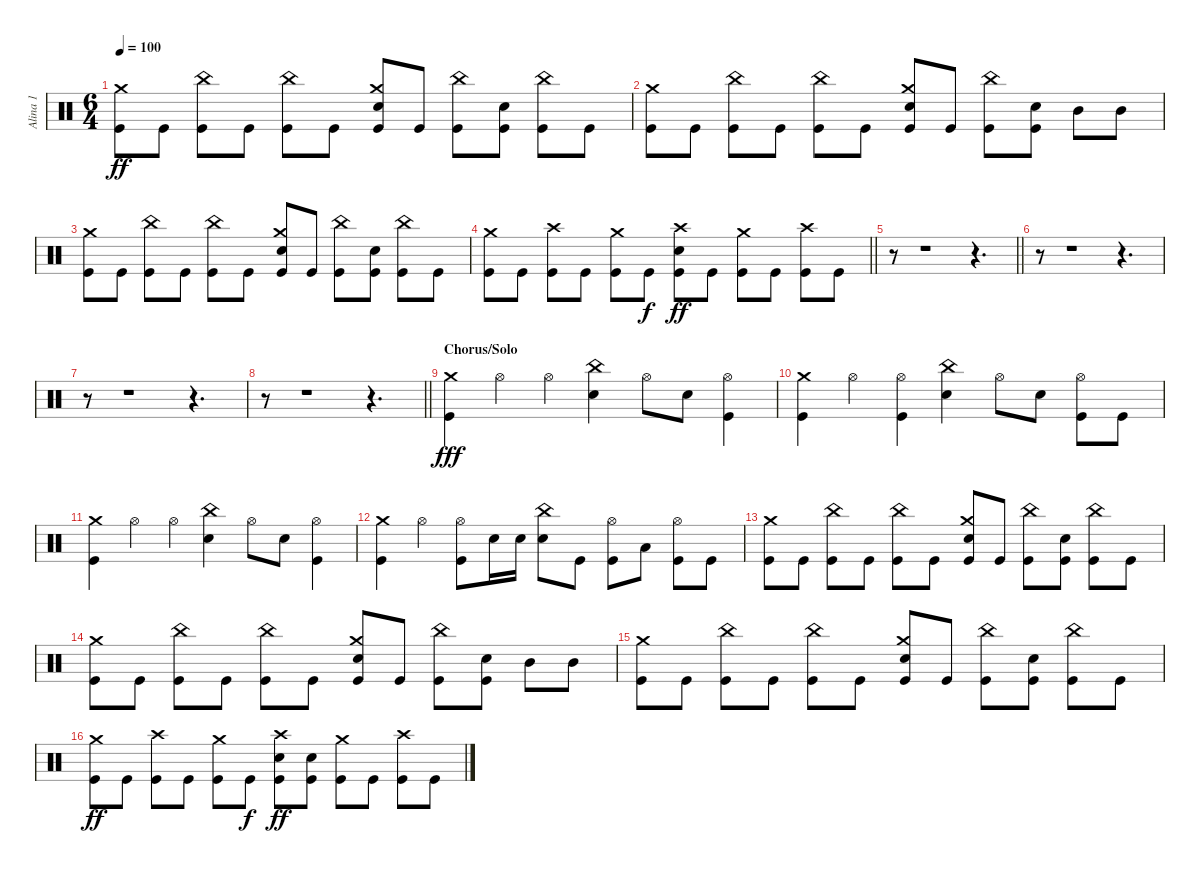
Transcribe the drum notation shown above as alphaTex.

\track ("Alina 1" "Alina 1") {mute instrument percussion}
\staff {score}
\articulation defaults
\ts (6 4)
\tempo 100
\clef neutral
\ks c
("Kick (hit)" "Crash medium (hit)").8{dy ff} "Kick (hit)".8 ("Kick (hit)" "China (hit)").8 "Kick (hit)".8 ("Kick (hit)" "China (hit)").8 "Kick (hit)".8 ("Kick (hit)" "Snare (hit) 2" "Crash medium (hit)").8 "Kick (hit)".8 ("Kick (hit)" "China (hit)").8 ("Kick (hit)" "Snare (hit) 2").8 ("Kick (hit)" "China (hit)").8 "Kick (hit)".8 |
("Kick (hit)" "Crash medium (hit)").8 "Kick (hit)".8 ("Kick (hit)" "China (hit)").8 "Kick (hit)".8 ("Kick (hit)" "China (hit)").8 "Kick (hit)".8 ("Kick (hit)" "Snare (hit) 2" "Crash medium (hit)").8 "Kick (hit)".8 ("Kick (hit)" "China (hit)").8 ("Kick (hit)" "Snare (hit) 2").8 "Mid Tom (hit)".8 "Mid Tom (hit)".8 |
("Kick (hit)" "Crash medium (hit)").8 "Kick (hit)".8 ("Kick (hit)" "China (hit)").8 "Kick (hit)".8 ("Kick (hit)" "China (hit)").8 "Kick (hit)".8 ("Kick (hit)" "Snare (hit) 2" "Crash medium (hit)").8 "Kick (hit)".8 ("Kick (hit)" "China (hit)").8 ("Kick (hit)" "Snare (hit) 2").8 ("Kick (hit)" "China (hit)").8 "Kick (hit)".8 |
\barLineRight lightlight
("Kick (hit)" "Crash medium (hit)").8 "Kick (hit)".8 ("Kick (hit)" "Crash high (hit)").8 "Kick (hit)".8 ("Kick (hit)" "Crash medium (hit)").8 "Kick (hit)".8{dy f} ("Kick (hit)" "Snare (hit) 2" "Crash high (hit)").8{dy ff} "Kick (hit)".8 ("Kick (hit)" "Crash medium (hit)").8 "Kick (hit)".8 ("Kick (hit)" "Crash high (hit)").8 "Kick (hit)".8 |
\barLineRight lightlight
r.8 r.1 r.4{d} |
r.8 r.1 r.4{d} |
r.8 r.1 r.4{d} |
\barLineRight lightlight
r.8 r.1 r.4{d} |
\section ("" "Chorus/Solo")
("Kick (hit)" "Crash medium (hit)").4{dy fff} "Hi-Hat (open)".4 "Hi-Hat (open)".4 ("Snare (hit) 2" "China (hit)").4 "Hi-Hat (open)".8 "Snare (hit) 2".8 ("Hi-Hat (open)" "Kick (hit)").4 |
("Kick (hit)" "Crash medium (hit)").4 "Hi-Hat (open)".4 ("Hi-Hat (open)" "Kick (hit)").4 ("Snare (hit) 2" "China (hit)").4 "Hi-Hat (open)".8 "Snare (hit) 2".8 ("Hi-Hat (open)" "Kick (hit)").8 "Kick (hit)".8 |
("Kick (hit)" "Crash medium (hit)").4 "Hi-Hat (open)".4 "Hi-Hat (open)".4 ("Snare (hit) 2" "China (hit)").4 "Hi-Hat (open)".8 "Snare (hit) 2".8 ("Hi-Hat (open)" "Kick (hit)").4 |
("Kick (hit)" "Crash medium (hit)").4 "Hi-Hat (open)".4 ("Hi-Hat (open)" "Kick (hit)").8 "Snare (hit) 2".16 "Snare (hit) 2".16 ("Snare (hit) 2" "China (hit)").8 "Kick (hit)".8 ("Hi-Hat (open)" "Kick (hit)").8 "Low Floor Tom (hit)".8 ("Kick (hit)" "Hi-Hat (open)").8 "Kick (hit)".8 |
("Kick (hit)" "Crash medium (hit)").8 "Kick (hit)".8 ("Kick (hit)" "China (hit)").8 "Kick (hit)".8 ("Kick (hit)" "China (hit)").8 "Kick (hit)".8 ("Kick (hit)" "Snare (hit) 2" "Crash medium (hit)").8 "Kick (hit)".8 ("Kick (hit)" "China (hit)").8 ("Kick (hit)" "Snare (hit) 2").8 ("Kick (hit)" "China (hit)").8 "Kick (hit)".8 |
("Kick (hit)" "Crash medium (hit)").8 "Kick (hit)".8 ("Kick (hit)" "China (hit)").8 "Kick (hit)".8 ("Kick (hit)" "China (hit)").8 "Kick (hit)".8 ("Kick (hit)" "Snare (hit) 2" "Crash medium (hit)").8 "Kick (hit)".8 ("Kick (hit)" "China (hit)").8 ("Kick (hit)" "Snare (hit) 2").8 "Mid Tom (hit)".8 "Mid Tom (hit)".8 |
("Kick (hit)" "Crash medium (hit)").8 "Kick (hit)".8 ("Kick (hit)" "China (hit)").8 "Kick (hit)".8 ("Kick (hit)" "China (hit)").8 "Kick (hit)".8 ("Kick (hit)" "Snare (hit) 2" "Crash medium (hit)").8 "Kick (hit)".8 ("Kick (hit)" "China (hit)").8 ("Kick (hit)" "Snare (hit) 2").8 ("Kick (hit)" "China (hit)").8 "Kick (hit)".8 |
("Kick (hit)" "Crash medium (hit)").8{dy ff} "Kick (hit)".8 ("Kick (hit)" "Crash high (hit)").8 "Kick (hit)".8 ("Kick (hit)" "Crash medium (hit)").8 "Kick (hit)".8{dy f} ("Kick (hit)" "Snare (hit) 2" "Crash high (hit)").8{dy ff} ("Kick (hit)" "Snare (hit) 2").8 ("Kick (hit)" "Crash medium (hit)").8 "Kick (hit)".8 ("Kick (hit)" "Crash high (hit)").8 "Kick (hit)".8
